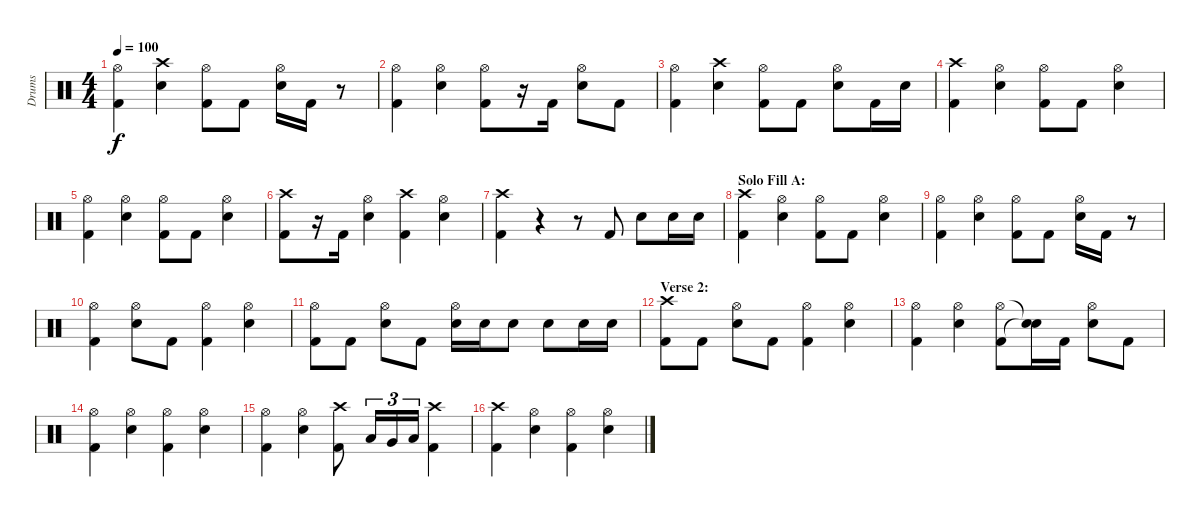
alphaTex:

\track ("Drums" "Drums") {instrument percussion}
\staff {score}
\articulation defaults
\ts (4 4)
\tempo 100
\clef neutral
\ks c
("Hi-Hat (open)" "Kick (hit) 2").4{dy f} ("Crash high (hit)" "Electric Snare (hit)").4 ("Hi-Hat (open)" "Kick (hit) 2").8 "Kick (hit) 2".8 ("Hi-Hat (open)" "Electric Snare (hit)").16 "Kick (hit) 2".16 r.8 |
("Hi-Hat (open)" "Kick (hit) 2").4 ("Hi-Hat (open)" "Electric Snare (hit)").4 ("Hi-Hat (open)" "Kick (hit) 2").8 r.16 "Kick (hit) 2".16 ("Hi-Hat (open)" "Electric Snare (hit)").8 "Kick (hit) 2".8 |
("Hi-Hat (open)" "Kick (hit) 2").4 ("Crash high (hit)" "Electric Snare (hit)").4 ("Hi-Hat (open)" "Kick (hit) 2").8 "Kick (hit) 2".8 ("Hi-Hat (open)" "Electric Snare (hit)").8 "Kick (hit) 2".16 "Electric Snare (hit)".16 |
("Crash high (hit)" "Kick (hit) 2").4 ("Hi-Hat (open)" "Electric Snare (hit)").4 ("Hi-Hat (open)" "Kick (hit) 2").8 "Kick (hit) 2".8 ("Hi-Hat (open)" "Electric Snare (hit)").4 |
("Hi-Hat (open)" "Kick (hit) 2").4 ("Hi-Hat (open)" "Electric Snare (hit)").4 ("Hi-Hat (open)" "Kick (hit) 2").8 "Kick (hit) 2".8 ("Hi-Hat (open)" "Electric Snare (hit)").4 |
("Crash high (hit)" "Kick (hit) 2").8 r.16 "Kick (hit) 2".16 ("Hi-Hat (open)" "Electric Snare (hit)").4 ("Crash high (hit)" "Kick (hit) 2").4 ("Hi-Hat (open)" "Electric Snare (hit)").4 |
("Crash high (hit)" "Kick (hit) 2").4 r.4 r.8 "Kick (hit) 2".8 "Electric Snare (hit)".8 "Electric Snare (hit)".16 "Electric Snare (hit)".16 |
\section ("" "Solo Fill A:")
("Crash high (hit)" "Kick (hit) 2").4 ("Hi-Hat (open)" "Electric Snare (hit)").4 ("Hi-Hat (open)" "Kick (hit) 2").8 "Kick (hit) 2".8 ("Hi-Hat (open)" "Electric Snare (hit)").4 |
("Hi-Hat (open)" "Kick (hit) 2").4 ("Hi-Hat (open)" "Electric Snare (hit)").4 ("Hi-Hat (open)" "Kick (hit) 2").8 "Kick (hit) 2".8 ("Hi-Hat (open)" "Electric Snare (hit)").16 "Kick (hit) 2".16 r.8 |
("Hi-Hat (open)" "Kick (hit) 2").4 ("Hi-Hat (open)" "Electric Snare (hit)").8 "Kick (hit) 2".8 ("Hi-Hat (open)" "Kick (hit) 2").4 ("Hi-Hat (open)" "Electric Snare (hit)").4 |
("Hi-Hat (open)" "Kick (hit) 2").8 "Kick (hit) 2".8 ("Hi-Hat (open)" "Electric Snare (hit)").8 "Kick (hit) 2".8 ("Hi-Hat (open)" "Electric Snare (hit)").16 "Electric Snare (hit)".16 "Electric Snare (hit)".8 "Electric Snare (hit)".8 "Electric Snare (hit)".16 "Electric Snare (hit)".16 |
\section ("" "Verse 2:")
("Crash high (hit)" "Kick (hit) 2").8 "Kick (hit) 2".8 ("Hi-Hat (open)" "Electric Snare (hit)").8 "Kick (hit) 2".8 ("Hi-Hat (open)" "Kick (hit) 2").4 ("Hi-Hat (open)" "Electric Snare (hit)").4 |
("Hi-Hat (open)" "Kick (hit) 2").4 ("Hi-Hat (open)" "Electric Snare (hit)").4 ("Hi-Hat (open)" "Kick (hit) 2").8 ("Snare (hit)"{t} "Snare (hit)"{t}).16 "Kick (hit) 2".16 ("Hi-Hat (open)" "Electric Snare (hit)").8 "Kick (hit) 2".8 |
("Hi-Hat (open)" "Kick (hit) 2").4 ("Hi-Hat (open)" "Electric Snare (hit)").4 ("Hi-Hat (open)" "Kick (hit) 2").4 ("Hi-Hat (open)" "Electric Snare (hit)").4 |
("Hi-Hat (open)" "Kick (hit) 2").4 ("Hi-Hat (open)" "Electric Snare (hit)").4 ("Crash high (hit)" "Kick (hit) 2").8 "Low Tom (hit)".16{tu (3 2)} "Very Low Tom (hit)".16{tu (3 2)} "Low Floor Tom (hit)".16{tu (3 2)} ("Crash high (hit)" "Kick (hit) 2").4 |
("Crash high (hit)" "Kick (hit) 2").4 ("Hi-Hat (open)" "Electric Snare (hit)").4 ("Hi-Hat (open)" "Kick (hit) 2").4 ("Hi-Hat (open)" "Electric Snare (hit)").4
